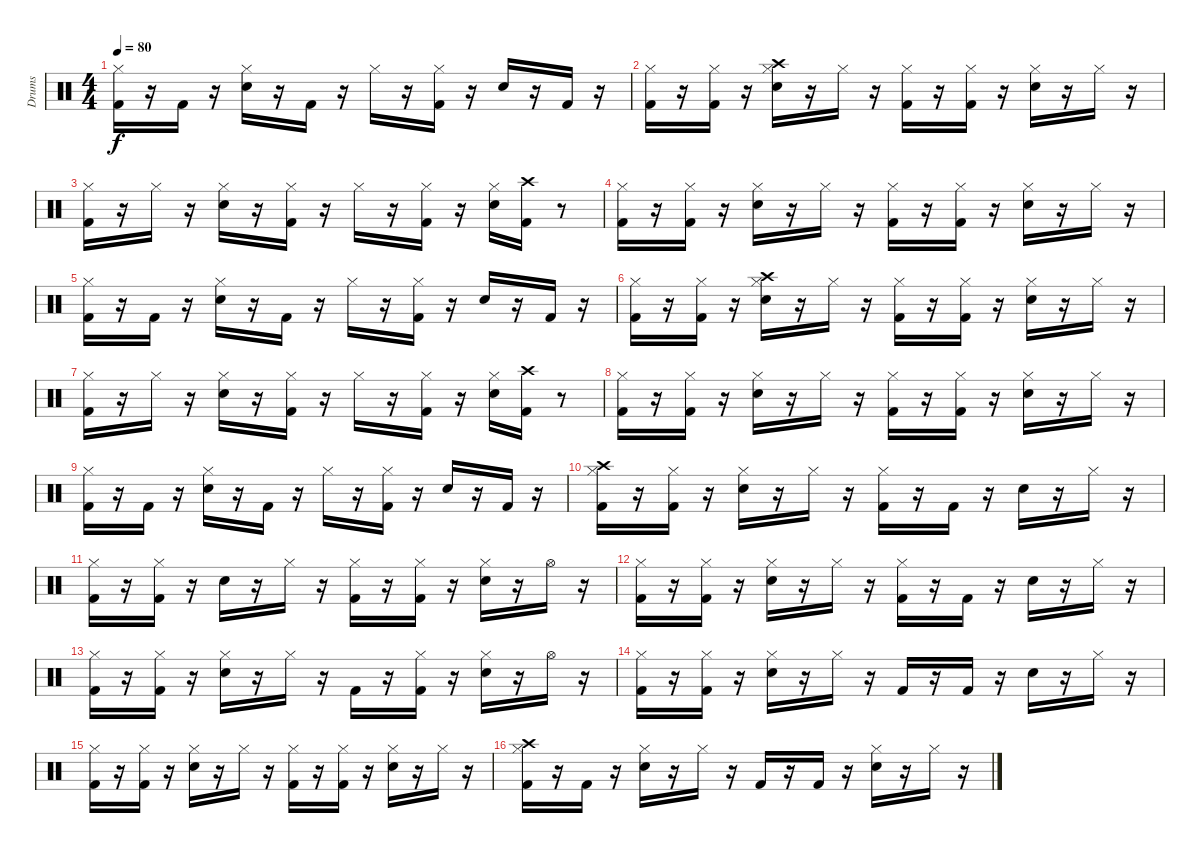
\track ("Drums" "Drums") {instrument percussion}
\staff {score}
\articulation defaults
\ts (4 4)
\tempo 80
\clef neutral
\ks c
("Kick (hit) 2" "Hi-Hat (closed)").16{dy f} r.16 "Kick (hit) 2".16 r.16 ("Snare (hit) 2" "Hi-Hat (closed)").16 r.16 "Kick (hit) 2".16 r.16 "Hi-Hat (closed)".16 r.16 ("Kick (hit) 2" "Hi-Hat (closed)").16 r.16 "Snare (hit) 2".16 r.16 "Kick (hit) 2".16 r.16 |
("Kick (hit) 2" "Hi-Hat (closed)").16 r.16 ("Kick (hit) 2" "Hi-Hat (closed)").16 r.16 ("Snare (hit) 2" "Hi-Hat (closed)" "Crash high (hit)").16 r.16 "Hi-Hat (closed)".16 r.16 ("Kick (hit) 2" "Hi-Hat (closed)").16 r.16 ("Kick (hit) 2" "Hi-Hat (closed)").16 r.16 ("Snare (hit) 2" "Hi-Hat (closed)").16 r.16 "Hi-Hat (closed)".16 r.16 |
("Kick (hit) 2" "Hi-Hat (closed)").16 r.16 "Hi-Hat (closed)".16 r.16 ("Snare (hit) 2" "Hi-Hat (closed)").16 r.16 ("Kick (hit) 2" "Hi-Hat (closed)").16 r.16 "Hi-Hat (closed)".16 r.16 ("Kick (hit) 2" "Hi-Hat (closed)").16 r.16 ("Snare (hit) 2" "Hi-Hat (closed)").16 ("Kick (hit) 2" "Crash high (hit)").16 r.8 |
("Kick (hit) 2" "Hi-Hat (closed)").16 r.16 ("Kick (hit) 2" "Hi-Hat (closed)").16 r.16 ("Snare (hit) 2" "Hi-Hat (closed)").16 r.16 "Hi-Hat (closed)".16 r.16 ("Kick (hit) 2" "Hi-Hat (closed)").16 r.16 ("Kick (hit) 2" "Hi-Hat (closed)").16 r.16 ("Snare (hit) 2" "Hi-Hat (closed)").16 r.16 "Hi-Hat (closed)".16 r.16 |
("Kick (hit) 2" "Hi-Hat (closed)").16 r.16 "Kick (hit) 2".16 r.16 ("Snare (hit) 2" "Hi-Hat (closed)").16 r.16 "Kick (hit) 2".16 r.16 "Hi-Hat (closed)".16 r.16 ("Kick (hit) 2" "Hi-Hat (closed)").16 r.16 "Snare (hit) 2".16 r.16 "Kick (hit) 2".16 r.16 |
("Kick (hit) 2" "Hi-Hat (closed)").16 r.16 ("Kick (hit) 2" "Hi-Hat (closed)").16 r.16 ("Snare (hit) 2" "Hi-Hat (closed)" "Crash high (hit)").16 r.16 "Hi-Hat (closed)".16 r.16 ("Kick (hit) 2" "Hi-Hat (closed)").16 r.16 ("Kick (hit) 2" "Hi-Hat (closed)").16 r.16 ("Snare (hit) 2" "Hi-Hat (closed)").16 r.16 "Hi-Hat (closed)".16 r.16 |
("Kick (hit) 2" "Hi-Hat (closed)").16 r.16 "Hi-Hat (closed)".16 r.16 ("Snare (hit) 2" "Hi-Hat (closed)").16 r.16 ("Kick (hit) 2" "Hi-Hat (closed)").16 r.16 "Hi-Hat (closed)".16 r.16 ("Kick (hit) 2" "Hi-Hat (closed)").16 r.16 ("Snare (hit) 2" "Hi-Hat (closed)").16 ("Kick (hit) 2" "Crash high (hit)").16 r.8 |
("Kick (hit) 2" "Hi-Hat (closed)").16 r.16 ("Kick (hit) 2" "Hi-Hat (closed)").16 r.16 ("Snare (hit) 2" "Hi-Hat (closed)").16 r.16 "Hi-Hat (closed)".16 r.16 ("Kick (hit) 2" "Hi-Hat (closed)").16 r.16 ("Kick (hit) 2" "Hi-Hat (closed)").16 r.16 ("Snare (hit) 2" "Hi-Hat (closed)").16 r.16 "Hi-Hat (closed)".16 r.16 |
("Kick (hit) 2" "Hi-Hat (closed)").16 r.16 "Kick (hit) 2".16 r.16 ("Snare (hit) 2" "Hi-Hat (closed)").16 r.16 "Kick (hit) 2".16 r.16 "Hi-Hat (closed)".16 r.16 ("Kick (hit) 2" "Hi-Hat (closed)").16 r.16 "Snare (hit) 2".16 r.16 "Kick (hit) 2".16 r.16 |
("Kick (hit) 2" "Hi-Hat (closed)" "Crash high (hit)").16 r.16 ("Kick (hit) 2" "Hi-Hat (closed)").16 r.16 ("Snare (hit) 2" "Hi-Hat (closed)").16 r.16 "Hi-Hat (closed)".16 r.16 ("Kick (hit) 2" "Hi-Hat (closed)").16 r.16 "Kick (hit) 2".16 r.16 "Snare (hit) 2".16 r.16 "Hi-Hat (closed)".16 r.16 |
("Kick (hit) 2" "Hi-Hat (closed)").16 r.16 ("Kick (hit) 2" "Hi-Hat (closed)").16 r.16 "Snare (hit) 2".16 r.16 "Hi-Hat (closed)".16 r.16 ("Kick (hit) 2" "Hi-Hat (closed)").16 r.16 ("Kick (hit) 2" "Hi-Hat (closed)").16 r.16 ("Snare (hit) 2" "Hi-Hat (closed)").16 r.16 "Hi-Hat (open)".16 r.16 |
("Kick (hit) 2" "Hi-Hat (closed)").16 r.16 ("Kick (hit) 2" "Hi-Hat (closed)").16 r.16 ("Snare (hit) 2" "Hi-Hat (closed)").16 r.16 "Hi-Hat (closed)".16 r.16 ("Kick (hit) 2" "Hi-Hat (closed)").16 r.16 "Kick (hit) 2".16 r.16 "Snare (hit) 2".16 r.16 "Hi-Hat (closed)".16 r.16 |
("Kick (hit) 2" "Hi-Hat (closed)").16 r.16 ("Kick (hit) 2" "Hi-Hat (closed)").16 r.16 ("Snare (hit) 2" "Hi-Hat (closed)").16 r.16 "Hi-Hat (closed)".16 r.16 "Kick (hit) 2".16 r.16 ("Kick (hit) 2" "Hi-Hat (closed)").16 r.16 ("Snare (hit) 2" "Hi-Hat (closed)").16 r.16 "Hi-Hat (open)".16 r.16 |
("Kick (hit) 2" "Hi-Hat (closed)").16 r.16 ("Kick (hit) 2" "Hi-Hat (closed)").16 r.16 ("Snare (hit) 2" "Hi-Hat (closed)").16 r.16 "Hi-Hat (closed)".16 r.16 "Kick (hit) 2".16 r.16 "Kick (hit) 2".16 r.16 "Snare (hit) 2".16 r.16 "Hi-Hat (closed)".16 r.16 |
("Kick (hit) 2" "Hi-Hat (closed)").16 r.16 ("Kick (hit) 2" "Hi-Hat (closed)").16 r.16 ("Snare (hit) 2" "Hi-Hat (closed)").16 r.16 "Hi-Hat (closed)".16 r.16 ("Kick (hit) 2" "Hi-Hat (closed)").16 r.16 ("Kick (hit) 2" "Hi-Hat (closed)").16 r.16 ("Snare (hit) 2" "Hi-Hat (closed)").16 r.16 "Hi-Hat (closed)".16 r.16 |
("Kick (hit) 2" "Hi-Hat (closed)" "Crash high (hit)").16 r.16 "Kick (hit) 2".16 r.16 ("Snare (hit) 2" "Hi-Hat (closed)").16 r.16 "Hi-Hat (closed)".16 r.16 "Kick (hit) 2".16 r.16 "Kick (hit) 2".16 r.16 ("Snare (hit) 2" "Hi-Hat (closed)").16 r.16 "Hi-Hat (closed)".16 r.16
